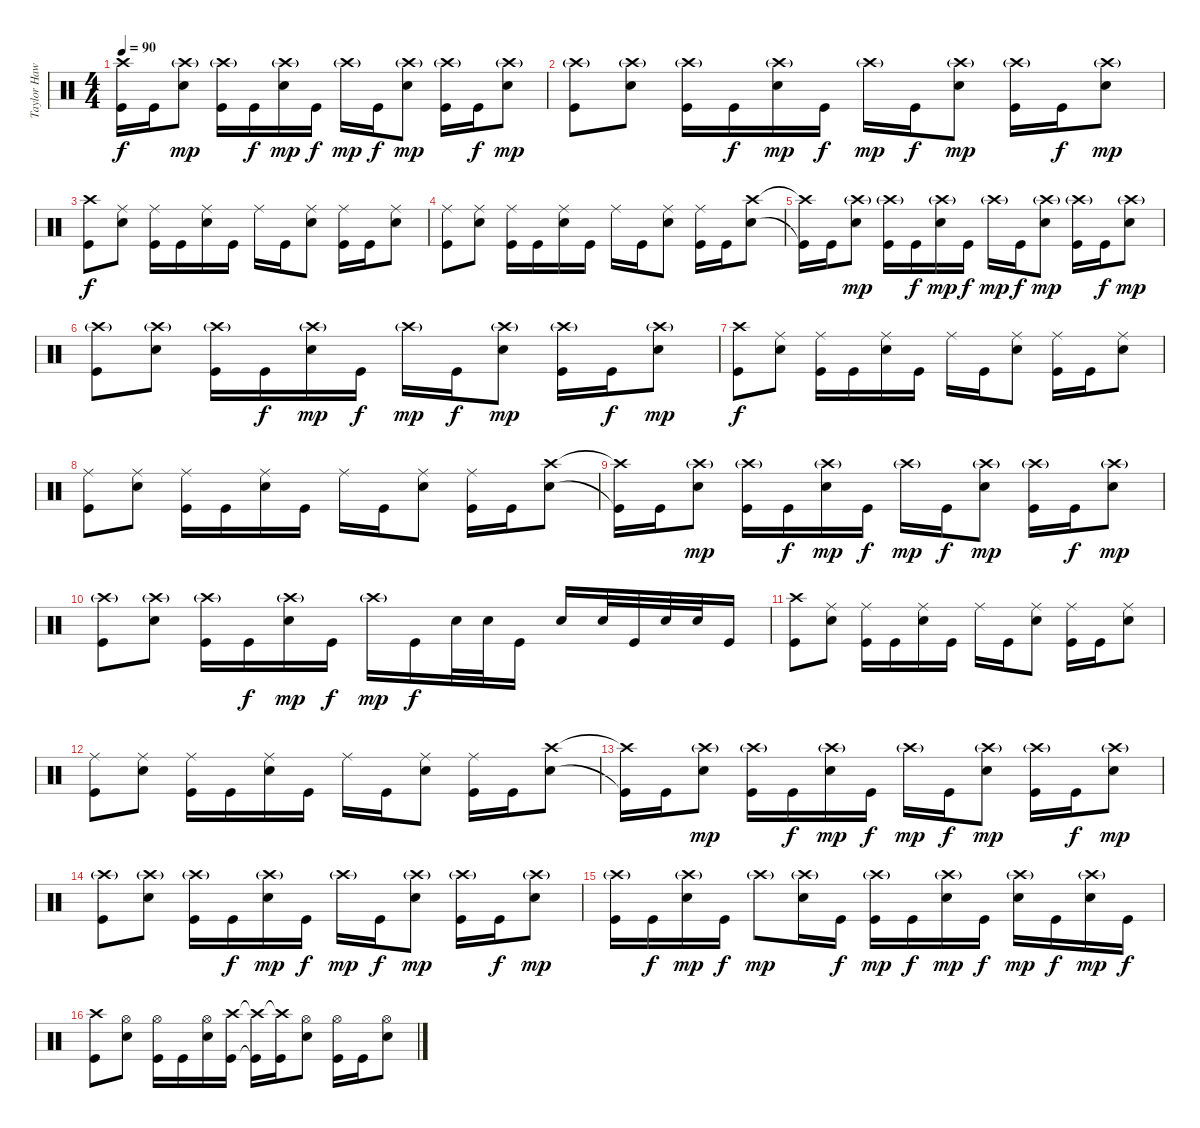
\track ("Taylor Hawkins - Drums" "Taylor Haw") {instrument percussion}
\staff {score}
\articulation defaults
\ts (4 4)
\tempo 90
\clef neutral
\ks c
("Crash high (hit)"{t} "Kick (hit)"{t}).16{dy f} "Kick (hit)".16 ("Crash high (hit)"{g} "Electric Snare (hit)").8{dy mp} ("Crash high (hit)"{g} "Kick (hit)").16 "Kick (hit)".16{dy f} ("Crash high (hit)"{g} "Electric Snare (hit)").16{dy mp} "Kick (hit)".16{dy f} "Crash high (hit)"{g}.16{dy mp} "Kick (hit)".16{dy f} ("Crash high (hit)"{g} "Electric Snare (hit)").8{dy mp} ("Crash high (hit)"{g} "Kick (hit)").16 "Kick (hit)".16{dy f} ("Crash high (hit)"{g} "Snare (hit) 2").8{dy mp} |
("Crash high (hit)"{g} "Kick (hit)").8 ("Crash high (hit)"{g} "Electric Snare (hit)").8 ("Crash high (hit)"{g} "Kick (hit)").16 "Kick (hit)".16{dy f} ("Crash high (hit)"{g} "Electric Snare (hit)").16{dy mp} "Kick (hit)".16{dy f} "Crash high (hit)"{g}.16{dy mp} "Kick (hit)".16{dy f} ("Crash high (hit)"{g} "Electric Snare (hit)").8{dy mp} ("Crash high (hit)"{g} "Kick (hit)").16 "Kick (hit)".16{dy f} ("Crash high (hit)"{g} "Electric Snare (hit)").8{dy mp} |
("Crash high (hit)" "Kick (hit)").8{dy f} ("Ride (middle)" "Electric Snare (hit)").8 ("Ride (middle)" "Kick (hit)").16 "Kick (hit)".16 ("Ride (middle)" "Electric Snare (hit)").16 "Kick (hit)".16 "Ride (middle)".16 "Kick (hit)".16 ("Ride (middle)" "Electric Snare (hit)").8 ("Ride (middle)" "Kick (hit)").16 "Kick (hit)".16 ("Ride (middle)" "Snare (hit) 2").8 |
("Ride (middle)" "Kick (hit)").8 ("Ride (middle)" "Electric Snare (hit)").8 ("Ride (middle)" "Kick (hit)").16 "Kick (hit)".16 ("Ride (middle)" "Electric Snare (hit)").16 "Kick (hit)".16 "Ride (middle)".16 "Kick (hit)".16 ("Ride (middle)" "Electric Snare (hit)").8 ("Ride (middle)" "Kick (hit)").16 "Kick (hit)".16 ("Crash high (hit)" "Snare (hit) 2").8 |
("Crash high (hit)"{t} "Kick (hit)"{t}).16 "Kick (hit)".16 ("Crash high (hit)"{g} "Electric Snare (hit)").8{dy mp} ("Crash high (hit)"{g} "Kick (hit)").16 "Kick (hit)".16{dy f} ("Crash high (hit)"{g} "Electric Snare (hit)").16{dy mp} "Kick (hit)".16{dy f} "Crash high (hit)"{g}.16{dy mp} "Kick (hit)".16{dy f} ("Crash high (hit)"{g} "Electric Snare (hit)").8{dy mp} ("Crash high (hit)"{g} "Kick (hit)").16 "Kick (hit)".16{dy f} ("Crash high (hit)"{g} "Snare (hit) 2").8{dy mp} |
("Crash high (hit)"{g} "Kick (hit)").8 ("Crash high (hit)"{g} "Electric Snare (hit)").8 ("Crash high (hit)"{g} "Kick (hit)").16 "Kick (hit)".16{dy f} ("Crash high (hit)"{g} "Electric Snare (hit)").16{dy mp} "Kick (hit)".16{dy f} "Crash high (hit)"{g}.16{dy mp} "Kick (hit)".16{dy f} ("Crash high (hit)"{g} "Electric Snare (hit)").8{dy mp} ("Crash high (hit)"{g} "Kick (hit)").16 "Kick (hit)".16{dy f} ("Crash high (hit)"{g} "Electric Snare (hit)").8{dy mp} |
("Crash high (hit)" "Kick (hit)").8{dy f} ("Ride (middle)" "Electric Snare (hit)").8 ("Ride (middle)" "Kick (hit)").16 "Kick (hit)".16 ("Ride (middle)" "Electric Snare (hit)").16 "Kick (hit)".16 "Ride (middle)".16 "Kick (hit)".16 ("Ride (middle)" "Electric Snare (hit)").8 ("Ride (middle)" "Kick (hit)").16 "Kick (hit)".16 ("Ride (middle)" "Snare (hit) 2").8 |
("Ride (middle)" "Kick (hit)").8 ("Ride (middle)" "Electric Snare (hit)").8 ("Ride (middle)" "Kick (hit)").16 "Kick (hit)".16 ("Ride (middle)" "Electric Snare (hit)").16 "Kick (hit)".16 "Ride (middle)".16 "Kick (hit)".16 ("Ride (middle)" "Electric Snare (hit)").8 ("Ride (middle)" "Kick (hit)").16 "Kick (hit)".16 ("Crash high (hit)" "Snare (hit) 2").8 |
("Crash high (hit)"{t} "Kick (hit)"{t}).16 "Kick (hit)".16 ("Crash high (hit)"{g} "Electric Snare (hit)").8{dy mp} ("Crash high (hit)"{g} "Kick (hit)").16 "Kick (hit)".16{dy f} ("Crash high (hit)"{g} "Electric Snare (hit)").16{dy mp} "Kick (hit)".16{dy f} "Crash high (hit)"{g}.16{dy mp} "Kick (hit)".16{dy f} ("Crash high (hit)"{g} "Electric Snare (hit)").8{dy mp} ("Crash high (hit)"{g} "Kick (hit)").16 "Kick (hit)".16{dy f} ("Crash high (hit)"{g} "Snare (hit) 2").8{dy mp} |
("Crash high (hit)"{g} "Kick (hit)").8 ("Crash high (hit)"{g} "Electric Snare (hit)").8 ("Crash high (hit)"{g} "Kick (hit)").16 "Kick (hit)".16{dy f} ("Crash high (hit)"{g} "Electric Snare (hit)").16{dy mp} "Kick (hit)".16{dy f} "Crash high (hit)"{g}.16{dy mp} "Kick (hit)".16{dy f} "Electric Snare (hit)".32 "Electric Snare (hit)".32 "Kick (hit)".16 "Electric Snare (hit)".16 "Electric Snare (hit)".32 "Kick (hit)".32 "Electric Snare (hit)".32 "Electric Snare (hit)".32 "Kick (hit)".16 |
("Crash high (hit)" "Kick (hit)").8 ("Ride (middle)" "Electric Snare (hit)").8 ("Ride (middle)" "Kick (hit)").16 "Kick (hit)".16 ("Ride (middle)" "Electric Snare (hit)").16 "Kick (hit)".16 "Ride (middle)".16 "Kick (hit)".16 ("Ride (middle)" "Electric Snare (hit)").8 ("Ride (middle)" "Kick (hit)").16 "Kick (hit)".16 ("Ride (middle)" "Snare (hit) 2").8 |
("Ride (middle)" "Kick (hit)").8 ("Ride (middle)" "Electric Snare (hit)").8 ("Ride (middle)" "Kick (hit)").16 "Kick (hit)".16 ("Ride (middle)" "Electric Snare (hit)").16 "Kick (hit)".16 "Ride (middle)".16 "Kick (hit)".16 ("Ride (middle)" "Electric Snare (hit)").8 ("Ride (middle)" "Kick (hit)").16 "Kick (hit)".16 ("Crash high (hit)" "Snare (hit) 2").8 |
("Crash high (hit)"{t} "Kick (hit)"{t}).16 "Kick (hit)".16 ("Crash high (hit)"{g} "Electric Snare (hit)").8{dy mp} ("Crash high (hit)"{g} "Kick (hit)").16 "Kick (hit)".16{dy f} ("Crash high (hit)"{g} "Electric Snare (hit)").16{dy mp} "Kick (hit)".16{dy f} "Crash high (hit)"{g}.16{dy mp} "Kick (hit)".16{dy f} ("Crash high (hit)"{g} "Electric Snare (hit)").8{dy mp} ("Crash high (hit)"{g} "Kick (hit)").16 "Kick (hit)".16{dy f} ("Crash high (hit)"{g} "Snare (hit) 2").8{dy mp} |
("Crash high (hit)"{g} "Kick (hit)").8 ("Crash high (hit)"{g} "Electric Snare (hit)").8 ("Crash high (hit)"{g} "Kick (hit)").16 "Kick (hit)".16{dy f} ("Crash high (hit)"{g} "Electric Snare (hit)").16{dy mp} "Kick (hit)".16{dy f} "Crash high (hit)"{g}.16{dy mp} "Kick (hit)".16{dy f} ("Crash high (hit)"{g} "Electric Snare (hit)").8{dy mp} ("Crash high (hit)"{g} "Kick (hit)").16 "Kick (hit)".16{dy f} ("Crash high (hit)"{g} "Electric Snare (hit)").8{dy mp} |
("Crash high (hit)"{g} "Kick (hit)").16 "Kick (hit)".16{dy f} ("Crash high (hit)"{g} "Electric Snare (hit)").16{dy mp} "Kick (hit)".16{dy f} "Crash high (hit)"{g}.8{dy mp} ("Crash high (hit)"{g} "Electric Snare (hit)").16 "Kick (hit)".16{dy f} ("Crash high (hit)"{g} "Kick (hit)").16{dy mp} "Kick (hit)".16{dy f} ("Crash high (hit)"{g} "Electric Snare (hit)").16{dy mp} "Kick (hit)".16{dy f} ("Crash high (hit)"{g} "Electric Snare (hit)").16{dy mp} "Kick (hit)".16{dy f} ("Crash high (hit)"{g} "Electric Snare (hit)").16{dy mp} "Kick (hit)".16{dy f} |
("Crash high (hit)" "Kick (hit)").8 ("Hi-Hat (open)" "Snare (hit) 2").8 ("Hi-Hat (open)" "Kick (hit)").16 "Kick (hit)".16 ("Hi-Hat (open)" "Snare (hit) 2").16 ("Crash high (hit)" "Kick (hit)").16 ("Crash high (hit)"{t} "Kick (hit)"{t}).16 ("Crash high (hit)"{t} "Kick (hit)").16 ("Hi-Hat (open)" "Snare (hit) 2").8 ("Hi-Hat (open)" "Kick (hit)").16 "Kick (hit)".16 ("Hi-Hat (open)" "Snare (hit) 2").8
